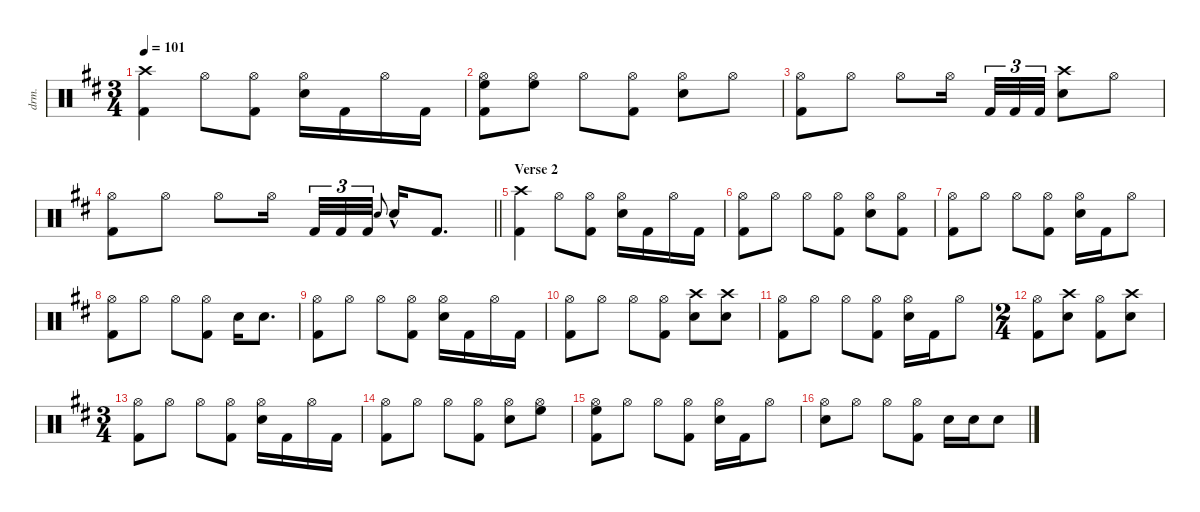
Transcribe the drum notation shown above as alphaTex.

\defaultSystemsLayout 4
\hideDynamics
\bracketExtendMode nobrackets
\otherSystemsTrackNameOrientation horizontal
\track ("Lars Ulrich" "drm.") {defaultSystemsLayout 4 instrument percussion}
\staff {score}
\articulation defaults
\ts (3 4)
\tempo 101
\clef neutral
\ks bminor
("Crash high (hit)"{acc forcenatural} "Kick (hit) 2"{acc forcenatural}).4{dy f} "Hi-Hat (open)"{acc forcenatural}.8{dy mf} ("Hi-Hat (open)"{acc forcenatural} "Kick (hit) 2"{acc forcenatural}).8 ("Hi-Hat (open)"{acc forcenatural} "Snare (hit) 2"{acc forcenatural}).16 "Kick (hit) 2"{acc forcenatural}.16{dy fff} "Hi-Hat (open)"{acc forcenatural}.16{dy mf} "Kick (hit) 2"{acc forcenatural}.16{dy fff} |
("Hi-Hat (open)"{acc forcenatural} "High Floor Tom (hit)"{acc forcenatural} "Kick (hit) 2"{acc forcenatural}).8{dy mf} ("Hi-Hat (open)"{acc forcenatural} "High Floor Tom (hit)"{acc forcenatural}).8 "Hi-Hat (open)"{acc forcenatural}.8 ("Hi-Hat (open)"{acc forcenatural} "Kick (hit) 2"{acc forcenatural}).8 ("Hi-Hat (open)"{acc forcenatural} "Snare (hit) 2"{acc forcenatural}).8 "Hi-Hat (open)"{acc forcenatural}.8 |
("Hi-Hat (open)"{acc forcenatural} "Kick (hit) 2"{acc forcenatural}).8 "Hi-Hat (open)"{acc forcenatural}.8 "Hi-Hat (open)"{acc forcenatural}.8 "Hi-Hat (open)"{acc forcenatural}.16 "Kick (hit) 2"{acc forcenatural}.32{tu (3 2) dy fff} "Kick (hit) 2"{acc forcenatural}.32{tu (3 2)} "Kick (hit) 2"{acc forcenatural}.32{tu (3 2)} ("Crash high (hit)"{acc forcenatural} "Snare (hit) 2"{acc forcenatural}).8{dy f} "Hi-Hat (open)"{acc forcenatural}.8{dy mf} |
\barLineRight lightlight
("Hi-Hat (open)"{acc forcenatural} "Kick (hit) 2"{acc forcenatural}).8 "Hi-Hat (open)"{acc forcenatural}.8 "Hi-Hat (open)"{acc forcenatural}.8 "Hi-Hat (open)"{acc forcenatural}.16 "Kick (hit) 2"{acc forcenatural}.32{tu (3 2) dy fff} "Kick (hit) 2"{acc forcenatural}.32{tu (3 2)} "Kick (hit) 2"{acc forcenatural}.32{tu (3 2)} "Electric Snare (hit)"{acc forcenatural}.8{gr onbeat dy mp} "Snare (hit) 2"{hac acc forcenatural}.16{dy f} "Kick (hit) 2"{acc forcenatural}.8{d dy fff} |
\section ("" "Verse 2")
("Crash high (hit)"{acc forcenatural} "Kick (hit) 2"{acc forcenatural}).4{dy f} "Hi-Hat (open)"{acc forcenatural}.8{dy mf} ("Hi-Hat (open)"{acc forcenatural} "Kick (hit) 2"{acc forcenatural}).8 ("Hi-Hat (open)"{acc forcenatural} "Snare (hit) 2"{acc forcenatural}).16 "Kick (hit) 2"{acc forcenatural}.16{dy fff} "Hi-Hat (open)"{acc forcenatural}.16{dy mf} "Kick (hit) 2"{acc forcenatural}.16{dy fff} |
("Hi-Hat (open)"{acc forcenatural} "Kick (hit) 2"{acc forcenatural}).8{dy mf} "Hi-Hat (open)"{acc forcenatural}.8 "Hi-Hat (open)"{acc forcenatural}.8 ("Hi-Hat (open)"{acc forcenatural} "Kick (hit) 2"{acc forcenatural}).8 ("Hi-Hat (open)"{acc forcenatural} "Snare (hit) 2"{acc forcenatural}).8 ("Hi-Hat (open)"{acc forcenatural} "Kick (hit) 2"{acc forcenatural}).8 |
("Hi-Hat (open)"{acc forcenatural} "Kick (hit) 2"{acc forcenatural}).8 "Hi-Hat (open)"{acc forcenatural}.8 "Hi-Hat (open)"{acc forcenatural}.8 ("Hi-Hat (open)"{acc forcenatural} "Kick (hit) 2"{acc forcenatural}).8 ("Hi-Hat (open)"{acc forcenatural} "Snare (hit) 2"{acc forcenatural}).16 "Kick (hit) 2"{acc forcenatural}.16{dy fff} "Hi-Hat (open)"{acc forcenatural}.8{dy mf} |
("Hi-Hat (open)"{acc forcenatural} "Kick (hit) 2"{acc forcenatural}).8 "Hi-Hat (open)"{acc forcenatural}.8 "Hi-Hat (open)"{acc forcenatural}.8 ("Hi-Hat (open)"{acc forcenatural} "Kick (hit) 2"{acc forcenatural}).8 "Snare (hit) 2"{acc forcenatural}.16{dy fff} "Snare (hit) 2"{acc forcenatural}.8{d} |
("Hi-Hat (open)"{acc forcenatural} "Kick (hit) 2"{acc forcenatural}).8{dy mf} "Hi-Hat (open)"{acc forcenatural}.8 "Hi-Hat (open)"{acc forcenatural}.8 ("Hi-Hat (open)"{acc forcenatural} "Kick (hit) 2"{acc forcenatural}).8 ("Hi-Hat (open)"{acc forcenatural} "Snare (hit) 2"{acc forcenatural}).16 "Kick (hit) 2"{acc forcenatural}.16{dy fff} "Hi-Hat (open)"{acc forcenatural}.16{dy mf} "Kick (hit) 2"{acc forcenatural}.16{dy fff} |
("Hi-Hat (open)"{acc forcenatural} "Kick (hit) 2"{acc forcenatural}).8{dy mf} "Hi-Hat (open)"{acc forcenatural}.8 "Hi-Hat (open)"{acc forcenatural}.8 ("Hi-Hat (open)"{acc forcenatural} "Kick (hit) 2"{acc forcenatural}).8 ("Crash high (hit)"{acc forcenatural} "Snare (hit) 2"{acc forcenatural}).8{dy f} ("Crash high (hit)"{acc forcenatural} "Snare (hit) 2"{acc forcenatural}).8 |
("Hi-Hat (open)"{acc forcenatural} "Kick (hit) 2"{acc forcenatural}).8{dy mf} "Hi-Hat (open)"{acc forcenatural}.8 "Hi-Hat (open)"{acc forcenatural}.8 ("Hi-Hat (open)"{acc forcenatural} "Kick (hit) 2"{acc forcenatural}).8 ("Hi-Hat (open)"{acc forcenatural} "Snare (hit) 2"{acc forcenatural}).16 "Kick (hit) 2"{acc forcenatural}.16{dy fff} "Hi-Hat (open)"{acc forcenatural}.8{dy mf} |
\ts (2 4)
\beaming (8 2 2)
("Hi-Hat (open)"{acc forcenatural} "Kick (hit) 2"{acc forcenatural}).8 ("Crash high (hit)"{acc forcenatural} "Snare (hit) 2"{acc forcenatural}).8{dy f} ("Hi-Hat (open)"{acc forcenatural} "Kick (hit) 2"{acc forcenatural}).8{dy mf} ("Crash high (hit)"{acc forcenatural} "Snare (hit) 2"{acc forcenatural}).8{dy f} |
\ts (3 4)
\beaming (8 2 2 2)
("Hi-Hat (open)"{acc forcenatural} "Kick (hit) 2"{acc forcenatural}).8{dy mf} "Hi-Hat (open)"{acc forcenatural}.8 "Hi-Hat (open)"{acc forcenatural}.8 ("Hi-Hat (open)"{acc forcenatural} "Kick (hit) 2"{acc forcenatural}).8 ("Hi-Hat (open)"{acc forcenatural} "Snare (hit) 2"{acc forcenatural}).16 "Kick (hit) 2"{acc forcenatural}.16{dy fff} "Hi-Hat (open)"{acc forcenatural}.16{dy mf} "Kick (hit) 2"{acc forcenatural}.16{dy fff} |
("Hi-Hat (open)"{acc forcenatural} "Kick (hit) 2"{acc forcenatural}).8{dy mf} "Hi-Hat (open)"{acc forcenatural}.8 "Hi-Hat (open)"{acc forcenatural}.8 ("Hi-Hat (open)"{acc forcenatural} "Kick (hit) 2"{acc forcenatural}).8 ("Hi-Hat (open)"{acc forcenatural} "Snare (hit) 2"{acc forcenatural}).8 ("Hi-Hat (open)"{acc forcenatural} "High Floor Tom (hit)"{acc forcenatural}).8 |
("Hi-Hat (open)"{acc forcenatural} "High Floor Tom (hit)"{acc forcenatural} "Kick (hit) 2"{acc forcenatural}).8 "Hi-Hat (open)"{acc forcenatural}.8 "Hi-Hat (open)"{acc forcenatural}.8 ("Hi-Hat (open)"{acc forcenatural} "Kick (hit) 2"{acc forcenatural}).8 ("Hi-Hat (open)"{acc forcenatural} "Snare (hit) 2"{acc forcenatural}).16 "Kick (hit) 2"{acc forcenatural}.16{dy fff} "Hi-Hat (open)"{acc forcenatural}.8{dy mf} |
("Hi-Hat (open)"{acc forcenatural} "Snare (hit) 2"{acc forcenatural}).8 "Hi-Hat (open)"{acc forcenatural}.8 "Hi-Hat (open)"{acc forcenatural}.8 ("Hi-Hat (open)"{acc forcenatural} "Kick (hit) 2"{acc forcenatural}).8 "Snare (hit) 2"{acc forcenatural}.16{dy fff} "Snare (hit) 2"{acc forcenatural}.16 "Snare (hit) 2"{acc forcenatural}.8
